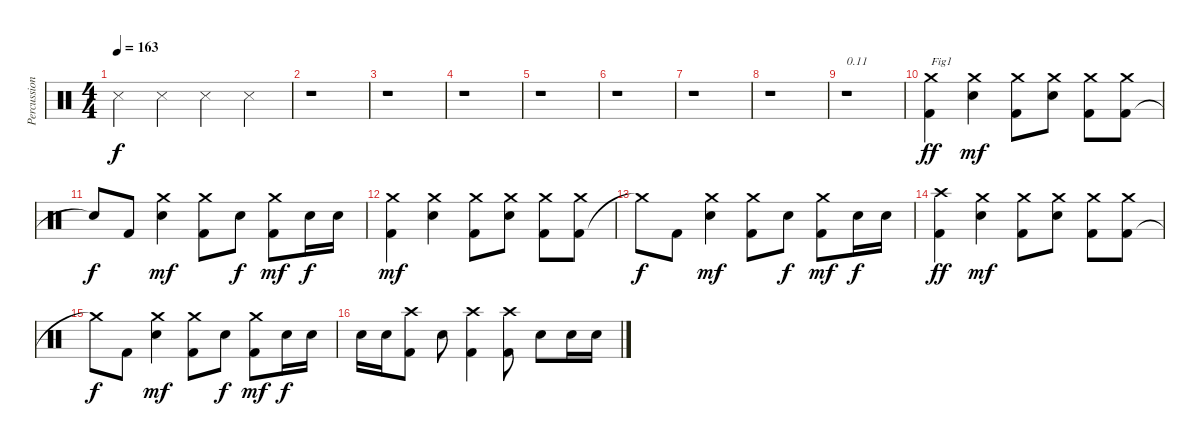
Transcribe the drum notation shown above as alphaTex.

\track ("Percussions" "Percussion") {instrument percussion}
\staff {score}
\articulation defaults
\ts (4 4)
\tempo 163
\clef neutral
\ks c "Metronome (hit)".4{dy f} "Metronome (hit)".4 "Metronome (hit)".4 "Metronome (hit)".4
|
r.1 |
r.1 |
r.1 |
r.1 |
r.1 |
r.1 |
r.1 |
r.1{txt "0.11"} |
("Kick (hit) 2" "Crash medium (hit)").4{txt "Fig1" dy ff} ("Electric Snare (hit)" "Crash medium (hit)").4{dy mf} ("Kick (hit) 2" "Crash medium (hit)").8 ("Electric Snare (hit)" "Crash medium (hit)").8 ("Kick (hit) 2" "Crash medium (hit)").8 ("Kick (hit) 2" "Crash medium (hit)").8 |
"Snare (hit)"{t}.8{dy f} "Kick (hit) 2".8 ("Electric Snare (hit)" "Crash medium (hit)").4{dy mf} ("Kick (hit) 2" "Crash medium (hit)").8 "Electric Snare (hit)".8{dy f} ("Kick (hit) 2" "Crash medium (hit)").8{dy mf} "Electric Snare (hit)".16{dy f} "Electric Snare (hit)".16 |
("Kick (hit) 2" "Crash medium (hit)").4{dy mf} ("Electric Snare (hit)" "Crash medium (hit)").4 ("Kick (hit) 2" "Crash medium (hit)").8 ("Electric Snare (hit)" "Crash medium (hit)").8 ("Kick (hit) 2" "Crash medium (hit)").8 ("Kick (hit) 2" "Crash medium (hit)").8 |
"Crash medium (hit)"{t}.8{dy f} "Kick (hit) 2".8 ("Electric Snare (hit)" "Crash medium (hit)").4{dy mf} ("Kick (hit) 2" "Crash medium (hit)").8 "Electric Snare (hit)".8{dy f} ("Kick (hit) 2" "Crash medium (hit)").8{dy mf} "Electric Snare (hit)".16{dy f} "Electric Snare (hit)".16 |
("Kick (hit) 2" "Crash high (hit)").4{dy ff} ("Electric Snare (hit)" "Crash medium (hit)").4{dy mf} ("Kick (hit) 2" "Crash medium (hit)").8 ("Electric Snare (hit)" "Crash medium (hit)").8 ("Kick (hit) 2" "Crash medium (hit)").8 ("Kick (hit) 2" "Crash medium (hit)").8 |
"Crash medium (hit)"{t}.8{dy f} "Kick (hit) 2".8 ("Electric Snare (hit)" "Crash medium (hit)").4{dy mf} ("Kick (hit) 2" "Crash medium (hit)").8 "Electric Snare (hit)".8{dy f} ("Kick (hit) 2" "Crash medium (hit)").8{dy mf} "Electric Snare (hit)".16{dy f} "Electric Snare (hit)".16 |
"Electric Snare (hit)".16 "Electric Snare (hit)".16 ("Kick (hit) 2" "Crash high (hit)").8 "Electric Snare (hit)".8 ("Kick (hit) 2" "Crash high (hit)").4 ("Kick (hit) 2" "Crash high (hit)").8 "Electric Snare (hit)".8 "Electric Snare (hit)".16 "Electric Snare (hit)".16
